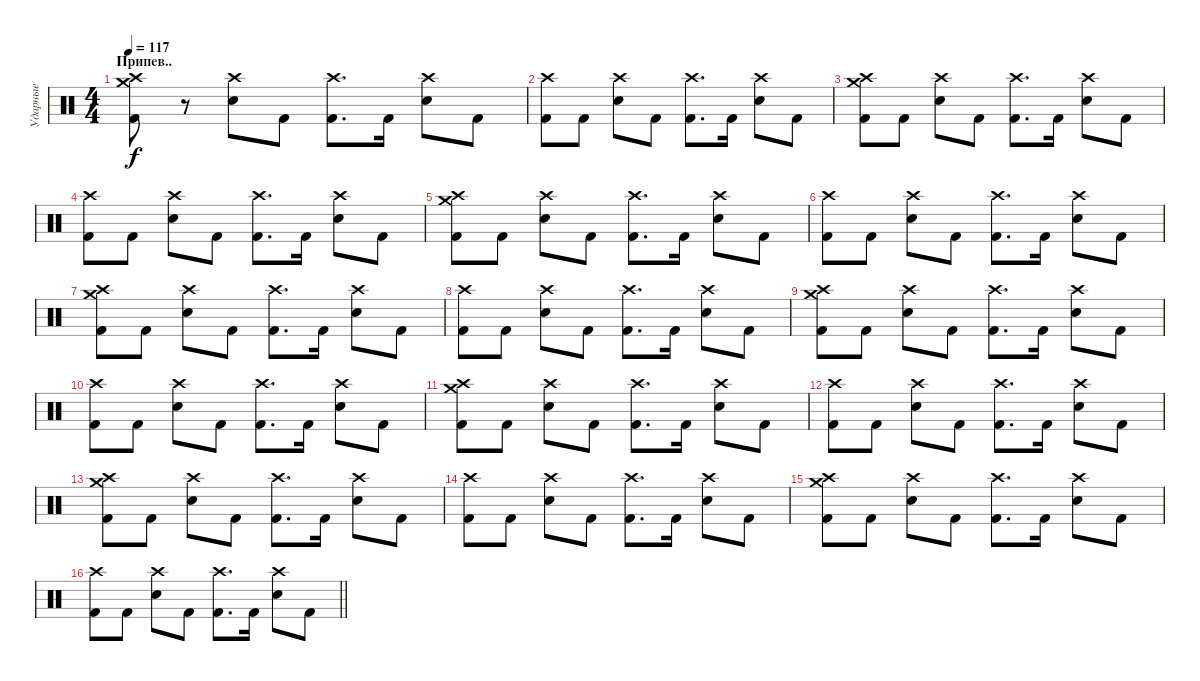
\track ("Ударные" "Ударные") {instrument percussion}
\staff {score}
\articulation defaults
\ts (4 4)
\section ("" "Припев..")
\tempo 117
\clef neutral
\ks c
("Crash medium (hit)" "Crash high (hit)" "Kick (hit) 2").8{dy f} r.8 ("Crash high (hit)" "Electric Snare (hit)").8 "Kick (hit) 2".8 ("Crash high (hit)" "Kick (hit) 2").8{d} "Kick (hit) 2".16 ("Crash high (hit)" "Electric Snare (hit)").8 "Kick (hit) 2".8 |
("Crash high (hit)" "Kick (hit) 2").8 "Kick (hit) 2".8 ("Crash high (hit)" "Electric Snare (hit)").8 "Kick (hit) 2".8 ("Crash high (hit)" "Kick (hit) 2").8{d} "Kick (hit) 2".16 ("Crash high (hit)" "Electric Snare (hit)").8 "Kick (hit) 2".8 |
("Crash medium (hit)" "Crash high (hit)" "Kick (hit) 2").8 "Kick (hit) 2".8 ("Crash high (hit)" "Electric Snare (hit)").8 "Kick (hit) 2".8 ("Crash high (hit)" "Kick (hit) 2").8{d} "Kick (hit) 2".16 ("Crash high (hit)" "Electric Snare (hit)").8 "Kick (hit) 2".8 |
("Crash high (hit)" "Kick (hit) 2").8 "Kick (hit) 2".8 ("Crash high (hit)" "Electric Snare (hit)").8 "Kick (hit) 2".8 ("Crash high (hit)" "Kick (hit) 2").8{d} "Kick (hit) 2".16 ("Crash high (hit)" "Electric Snare (hit)").8 "Kick (hit) 2".8 |
("Crash medium (hit)" "Crash high (hit)" "Kick (hit) 2").8 "Kick (hit) 2".8 ("Crash high (hit)" "Electric Snare (hit)").8 "Kick (hit) 2".8 ("Crash high (hit)" "Kick (hit) 2").8{d} "Kick (hit) 2".16 ("Crash high (hit)" "Electric Snare (hit)").8 "Kick (hit) 2".8 |
("Crash high (hit)" "Kick (hit) 2").8 "Kick (hit) 2".8 ("Crash high (hit)" "Electric Snare (hit)").8 "Kick (hit) 2".8 ("Crash high (hit)" "Kick (hit) 2").8{d} "Kick (hit) 2".16 ("Crash high (hit)" "Electric Snare (hit)").8 "Kick (hit) 2".8 |
("Crash medium (hit)" "Crash high (hit)" "Kick (hit) 2").8 "Kick (hit) 2".8 ("Crash high (hit)" "Electric Snare (hit)").8 "Kick (hit) 2".8 ("Crash high (hit)" "Kick (hit) 2").8{d} "Kick (hit) 2".16 ("Crash high (hit)" "Electric Snare (hit)").8 "Kick (hit) 2".8 |
("Crash high (hit)" "Kick (hit) 2").8 "Kick (hit) 2".8 ("Crash high (hit)" "Electric Snare (hit)").8 "Kick (hit) 2".8 ("Crash high (hit)" "Kick (hit) 2").8{d} "Kick (hit) 2".16 ("Crash high (hit)" "Electric Snare (hit)").8 "Kick (hit) 2".8 |
("Crash medium (hit)" "Crash high (hit)" "Kick (hit) 2").8 "Kick (hit) 2".8 ("Crash high (hit)" "Electric Snare (hit)").8 "Kick (hit) 2".8 ("Crash high (hit)" "Kick (hit) 2").8{d} "Kick (hit) 2".16 ("Crash high (hit)" "Electric Snare (hit)").8 "Kick (hit) 2".8 |
("Crash high (hit)" "Kick (hit) 2").8 "Kick (hit) 2".8 ("Crash high (hit)" "Electric Snare (hit)").8 "Kick (hit) 2".8 ("Crash high (hit)" "Kick (hit) 2").8{d} "Kick (hit) 2".16 ("Crash high (hit)" "Electric Snare (hit)").8 "Kick (hit) 2".8 |
("Crash medium (hit)" "Crash high (hit)" "Kick (hit) 2").8 "Kick (hit) 2".8 ("Crash high (hit)" "Electric Snare (hit)").8 "Kick (hit) 2".8 ("Crash high (hit)" "Kick (hit) 2").8{d} "Kick (hit) 2".16 ("Crash high (hit)" "Electric Snare (hit)").8 "Kick (hit) 2".8 |
("Crash high (hit)" "Kick (hit) 2").8 "Kick (hit) 2".8 ("Crash high (hit)" "Electric Snare (hit)").8 "Kick (hit) 2".8 ("Crash high (hit)" "Kick (hit) 2").8{d} "Kick (hit) 2".16 ("Crash high (hit)" "Electric Snare (hit)").8 "Kick (hit) 2".8 |
("Crash medium (hit)" "Crash high (hit)" "Kick (hit) 2").8 "Kick (hit) 2".8 ("Crash high (hit)" "Electric Snare (hit)").8 "Kick (hit) 2".8 ("Crash high (hit)" "Kick (hit) 2").8{d} "Kick (hit) 2".16 ("Crash high (hit)" "Electric Snare (hit)").8 "Kick (hit) 2".8 |
("Crash high (hit)" "Kick (hit) 2").8 "Kick (hit) 2".8 ("Crash high (hit)" "Electric Snare (hit)").8 "Kick (hit) 2".8 ("Crash high (hit)" "Kick (hit) 2").8{d} "Kick (hit) 2".16 ("Crash high (hit)" "Electric Snare (hit)").8 "Kick (hit) 2".8 |
("Crash medium (hit)" "Crash high (hit)" "Kick (hit) 2").8 "Kick (hit) 2".8 ("Crash high (hit)" "Electric Snare (hit)").8 "Kick (hit) 2".8 ("Crash high (hit)" "Kick (hit) 2").8{d} "Kick (hit) 2".16 ("Crash high (hit)" "Electric Snare (hit)").8 "Kick (hit) 2".8 |
\barLineRight lightlight
("Crash high (hit)" "Kick (hit) 2").8 "Kick (hit) 2".8 ("Crash high (hit)" "Electric Snare (hit)").8 "Kick (hit) 2".8 ("Crash high (hit)" "Kick (hit) 2").8{d} "Kick (hit) 2".16 ("Crash high (hit)" "Electric Snare (hit)").8 "Kick (hit) 2".8
